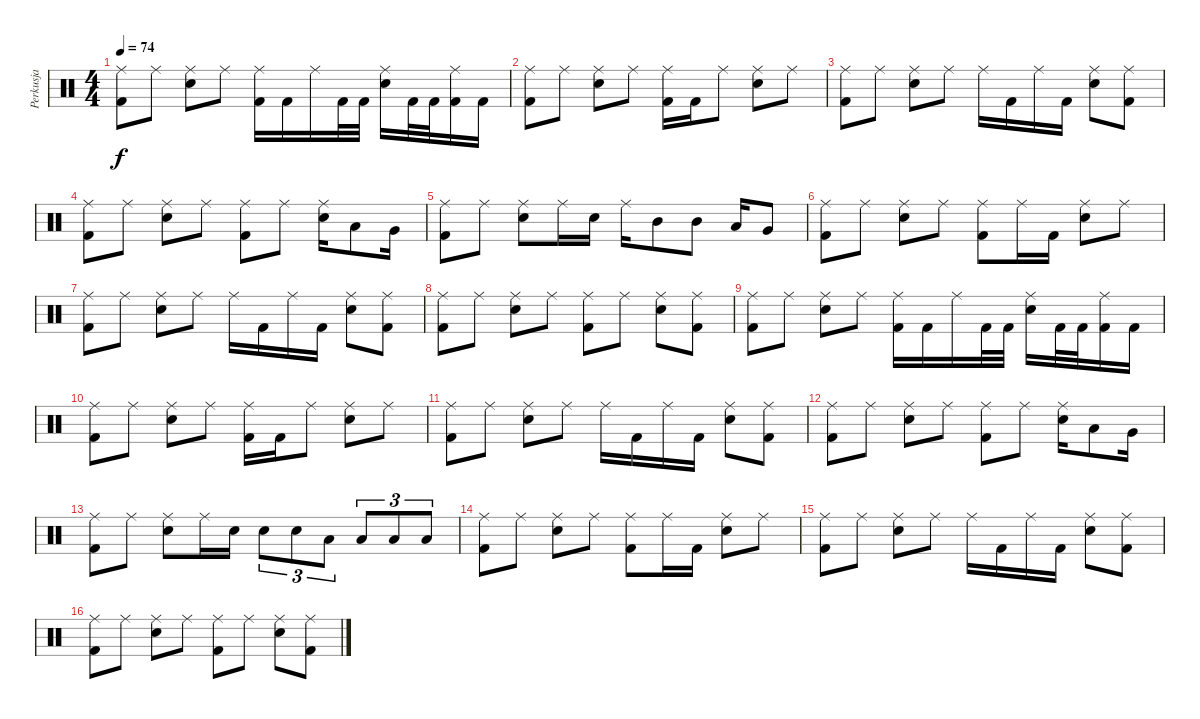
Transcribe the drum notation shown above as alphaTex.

\track ("Perkusja" "Perkusja") {instrument percussion}
\staff {score}
\articulation defaults
\ts (4 4)
\tempo 74
\clef neutral
\ks c
("Ride (middle)" "Kick (hit) 2").8{dy f} "Ride (middle)".8 ("Ride (middle)" "Electric Snare (hit)").8 "Ride (middle)".8 ("Ride (middle)" "Kick (hit) 2").16 "Kick (hit) 2".16 "Ride (middle)".16 "Kick (hit) 2".32 "Kick (hit) 2".32 ("Ride (middle)" "Electric Snare (hit)").16 "Kick (hit) 2".32 "Kick (hit) 2".32 ("Ride (middle)" "Kick (hit) 2").16 "Kick (hit) 2".16 |
("Ride (middle)" "Kick (hit) 2").8 "Ride (middle)".8 ("Ride (middle)" "Electric Snare (hit)").8 "Ride (middle)".8 ("Ride (middle)" "Kick (hit) 2").16 "Kick (hit) 2".16 "Ride (middle)".8 ("Ride (middle)" "Electric Snare (hit)").8 "Ride (middle)".8 |
("Ride (middle)" "Kick (hit) 2").8 "Ride (middle)".8 ("Ride (middle)" "Electric Snare (hit)").8 "Ride (middle)".8 "Ride (middle)".16 "Kick (hit) 2".16 "Ride (middle)".16 "Kick (hit) 2".16 ("Ride (middle)" "Electric Snare (hit)").8 ("Ride (middle)" "Kick (hit) 2").8 |
("Ride (middle)" "Kick (hit) 2").8 "Ride (middle)".8 ("Ride (middle)" "Electric Snare (hit)").8 "Ride (middle)".8 ("Ride (middle)" "Kick (hit) 2").8 "Ride (middle)".8 ("Ride (middle)" "Electric Snare (hit)").16 "Low Tom (hit)".8 "Very Low Tom (hit)".16 |
("Ride (middle)" "Kick (hit) 2").8 "Ride (middle)".8 ("Ride (middle)" "Electric Snare (hit)").8 "Ride (middle)".16 "Electric Snare (hit)".16 "Ride (middle)".16 "Mid Tom (hit)".8 "Mid Tom (hit)".8 "Low Tom (hit)".16 "Very Low Tom (hit)".8 |
("Ride (middle)" "Kick (hit) 2").8 "Ride (middle)".8 ("Ride (middle)" "Electric Snare (hit)").8 "Ride (middle)".8 ("Ride (middle)" "Kick (hit) 2").8 "Ride (middle)".16 "Kick (hit) 2".16 ("Ride (middle)" "Electric Snare (hit)").8 "Ride (middle)".8 |
("Ride (middle)" "Kick (hit) 2").8 "Ride (middle)".8 ("Ride (middle)" "Electric Snare (hit)").8 "Ride (middle)".8 "Ride (middle)".16 "Kick (hit) 2".16 "Ride (middle)".16 "Kick (hit) 2".16 ("Ride (middle)" "Electric Snare (hit)").8 ("Ride (middle)" "Kick (hit) 2").8 |
("Ride (middle)" "Kick (hit) 2").8 "Ride (middle)".8 ("Ride (middle)" "Electric Snare (hit)").8 "Ride (middle)".8 ("Ride (middle)" "Kick (hit) 2").8 "Ride (middle)".8 ("Ride (middle)" "Electric Snare (hit)").8 ("Ride (middle)" "Kick (hit) 2").8 |
("Ride (middle)" "Kick (hit) 2").8 "Ride (middle)".8 ("Ride (middle)" "Electric Snare (hit)").8 "Ride (middle)".8 ("Ride (middle)" "Kick (hit) 2").16 "Kick (hit) 2".16 "Ride (middle)".16 "Kick (hit) 2".32 "Kick (hit) 2".32 ("Ride (middle)" "Electric Snare (hit)").16 "Kick (hit) 2".32 "Kick (hit) 2".32 ("Ride (middle)" "Kick (hit) 2").16 "Kick (hit) 2".16 |
("Ride (middle)" "Kick (hit) 2").8 "Ride (middle)".8 ("Ride (middle)" "Electric Snare (hit)").8 "Ride (middle)".8 ("Ride (middle)" "Kick (hit) 2").16 "Kick (hit) 2".16 "Ride (middle)".8 ("Ride (middle)" "Electric Snare (hit)").8 "Ride (middle)".8 |
("Ride (middle)" "Kick (hit) 2").8 "Ride (middle)".8 ("Ride (middle)" "Electric Snare (hit)").8 "Ride (middle)".8 "Ride (middle)".16 "Kick (hit) 2".16 "Ride (middle)".16 "Kick (hit) 2".16 ("Ride (middle)" "Electric Snare (hit)").8 ("Ride (middle)" "Kick (hit) 2").8 |
("Ride (middle)" "Kick (hit) 2").8 "Ride (middle)".8 ("Ride (middle)" "Electric Snare (hit)").8 "Ride (middle)".8 ("Ride (middle)" "Kick (hit) 2").8 "Ride (middle)".8 ("Ride (middle)" "Electric Snare (hit)").16 "Low Tom (hit)".8 "Very Low Tom (hit)".16 |
("Ride (middle)" "Kick (hit) 2").8 "Ride (middle)".8 ("Ride (middle)" "Electric Snare (hit)").8 "Ride (middle)".16 "Electric Snare (hit)".16 "Electric Snare (hit)".8{tu (3 2)} "Electric Snare (hit)".8{tu (3 2)} "Low Tom (hit)".8{tu (3 2)} "Low Tom (hit)".8{tu (3 2)} "Low Tom (hit)".8{tu (3 2)} "Low Tom (hit)".8{tu (3 2)} |
("Ride (middle)" "Kick (hit) 2").8 "Ride (middle)".8 ("Ride (middle)" "Electric Snare (hit)").8 "Ride (middle)".8 ("Ride (middle)" "Kick (hit) 2").8 "Ride (middle)".16 "Kick (hit) 2".16 ("Ride (middle)" "Electric Snare (hit)").8 "Ride (middle)".8 |
("Ride (middle)" "Kick (hit) 2").8 "Ride (middle)".8 ("Ride (middle)" "Electric Snare (hit)").8 "Ride (middle)".8 "Ride (middle)".16 "Kick (hit) 2".16 "Ride (middle)".16 "Kick (hit) 2".16 ("Ride (middle)" "Electric Snare (hit)").8 ("Ride (middle)" "Kick (hit) 2").8 |
("Ride (middle)" "Kick (hit) 2").8 "Ride (middle)".8 ("Ride (middle)" "Electric Snare (hit)").8 "Ride (middle)".8 ("Ride (middle)" "Kick (hit) 2").8 "Ride (middle)".8 ("Ride (middle)" "Electric Snare (hit)").8 ("Ride (middle)" "Kick (hit) 2").8
